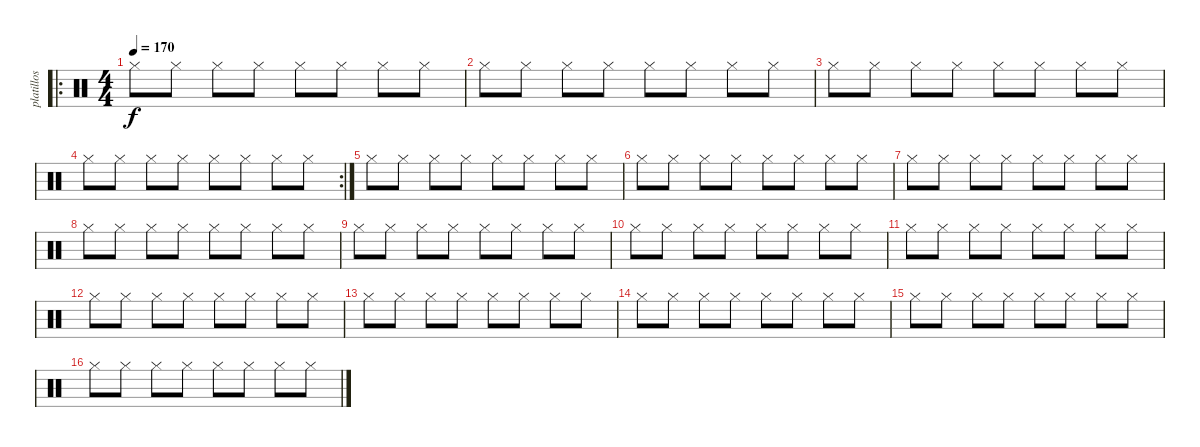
\track ("platillos" "platillos") {instrument percussion}
\staff {score}
\articulation defaults
\ro
\ts (4 4)
\tempo 170
\clef neutral
\ks c "Hi-Hat (closed)".8{dy f} "Hi-Hat (closed)".8 "Hi-Hat (closed)".8 "Hi-Hat (closed)".8 "Hi-Hat (closed)".8 "Hi-Hat (closed)".8 "Hi-Hat (closed)".8 "Hi-Hat (closed)".8
|
"Hi-Hat (closed)".8 "Hi-Hat (closed)".8 "Hi-Hat (closed)".8 "Hi-Hat (closed)".8 "Hi-Hat (closed)".8 "Hi-Hat (closed)".8 "Hi-Hat (closed)".8 "Hi-Hat (closed)".8 |
"Hi-Hat (closed)".8 "Hi-Hat (closed)".8 "Hi-Hat (closed)".8 "Hi-Hat (closed)".8 "Hi-Hat (closed)".8 "Hi-Hat (closed)".8 "Hi-Hat (closed)".8 "Hi-Hat (closed)".8 |
\rc 2 "Hi-Hat (closed)".8 "Hi-Hat (closed)".8 "Hi-Hat (closed)".8 "Hi-Hat (closed)".8 "Hi-Hat (closed)".8 "Hi-Hat (closed)".8 "Hi-Hat (closed)".8 "Hi-Hat (closed)".8
|
"Hi-Hat (closed)".8 "Hi-Hat (closed)".8 "Hi-Hat (closed)".8 "Hi-Hat (closed)".8 "Hi-Hat (closed)".8 "Hi-Hat (closed)".8 "Hi-Hat (closed)".8 "Hi-Hat (closed)".8 |
"Hi-Hat (closed)".8 "Hi-Hat (closed)".8 "Hi-Hat (closed)".8 "Hi-Hat (closed)".8 "Hi-Hat (closed)".8 "Hi-Hat (closed)".8 "Hi-Hat (closed)".8 "Hi-Hat (closed)".8 |
"Hi-Hat (closed)".8 "Hi-Hat (closed)".8 "Hi-Hat (closed)".8 "Hi-Hat (closed)".8 "Hi-Hat (closed)".8 "Hi-Hat (closed)".8 "Hi-Hat (closed)".8 "Hi-Hat (closed)".8 |
"Hi-Hat (closed)".8 "Hi-Hat (closed)".8 "Hi-Hat (closed)".8 "Hi-Hat (closed)".8 "Hi-Hat (closed)".8 "Hi-Hat (closed)".8 "Hi-Hat (closed)".8 "Hi-Hat (closed)".8 |
"Hi-Hat (closed)".8 "Hi-Hat (closed)".8 "Hi-Hat (closed)".8 "Hi-Hat (closed)".8 "Hi-Hat (closed)".8 "Hi-Hat (closed)".8 "Hi-Hat (closed)".8 "Hi-Hat (closed)".8 |
"Hi-Hat (closed)".8 "Hi-Hat (closed)".8 "Hi-Hat (closed)".8 "Hi-Hat (closed)".8 "Hi-Hat (closed)".8 "Hi-Hat (closed)".8 "Hi-Hat (closed)".8 "Hi-Hat (closed)".8 |
"Hi-Hat (closed)".8 "Hi-Hat (closed)".8 "Hi-Hat (closed)".8 "Hi-Hat (closed)".8 "Hi-Hat (closed)".8 "Hi-Hat (closed)".8 "Hi-Hat (closed)".8 "Hi-Hat (closed)".8 |
"Hi-Hat (closed)".8 "Hi-Hat (closed)".8 "Hi-Hat (closed)".8 "Hi-Hat (closed)".8 "Hi-Hat (closed)".8 "Hi-Hat (closed)".8 "Hi-Hat (closed)".8 "Hi-Hat (closed)".8 |
"Hi-Hat (closed)".8 "Hi-Hat (closed)".8 "Hi-Hat (closed)".8 "Hi-Hat (closed)".8 "Hi-Hat (closed)".8 "Hi-Hat (closed)".8 "Hi-Hat (closed)".8 "Hi-Hat (closed)".8 |
"Hi-Hat (closed)".8 "Hi-Hat (closed)".8 "Hi-Hat (closed)".8 "Hi-Hat (closed)".8 "Hi-Hat (closed)".8 "Hi-Hat (closed)".8 "Hi-Hat (closed)".8 "Hi-Hat (closed)".8 |
"Hi-Hat (closed)".8 "Hi-Hat (closed)".8 "Hi-Hat (closed)".8 "Hi-Hat (closed)".8 "Hi-Hat (closed)".8 "Hi-Hat (closed)".8 "Hi-Hat (closed)".8 "Hi-Hat (closed)".8 |
"Hi-Hat (closed)".8 "Hi-Hat (closed)".8 "Hi-Hat (closed)".8 "Hi-Hat (closed)".8 "Hi-Hat (closed)".8 "Hi-Hat (closed)".8 "Hi-Hat (closed)".8 "Hi-Hat (closed)".8
